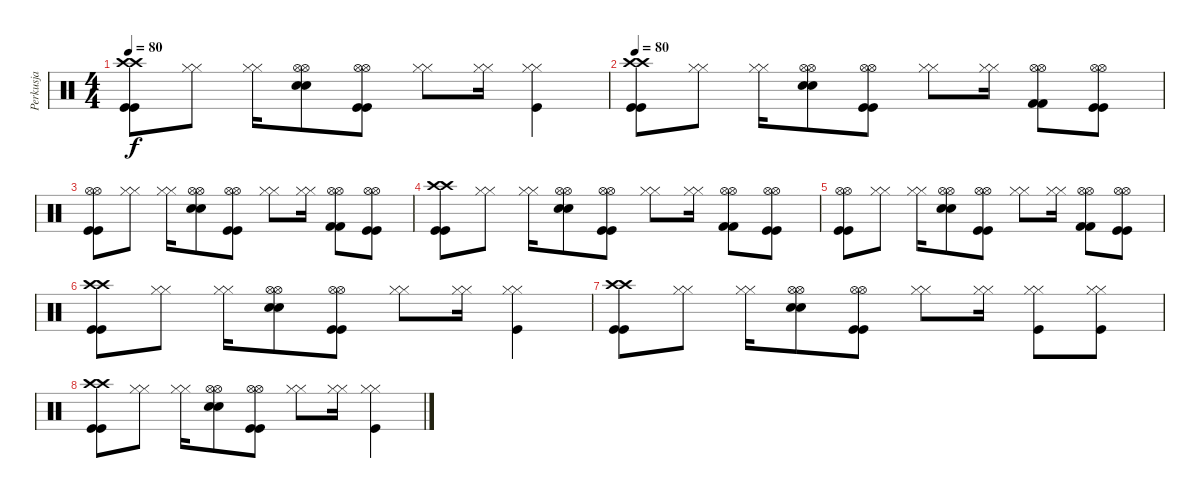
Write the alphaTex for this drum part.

\track ("Perkusja" "Perkusja") {instrument percussion}
\staff {score}
\articulation defaults
\ts (4 4)
\tempo 80
\clef neutral
\ks c
("Crash high (hit)" "Crash high (hit)" "Kick (hit)" "Kick (hit)").8{dy f} ("Hi-Hat (closed)" "Hi-Hat (closed)").8 ("Hi-Hat (closed)" "Hi-Hat (closed)").16 ("Hi-Hat (open)" "Hi-Hat (open)" "Snare (hit) 2" "Snare (hit) 2").8 ("Hi-Hat (open)" "Hi-Hat (open)" "Kick (hit)" "Kick (hit)").8 ("Hi-Hat (closed)" "Hi-Hat (closed)").8 ("Hi-Hat (closed)" "Hi-Hat (closed)").16 ("Hi-Hat (closed)" "Hi-Hat (closed)" "Kick (hit)").4 |
\tempo 80
("Crash high (hit)" "Crash high (hit)" "Kick (hit)" "Kick (hit)").8 ("Hi-Hat (closed)" "Hi-Hat (closed)").8 ("Hi-Hat (closed)" "Hi-Hat (closed)").16 ("Hi-Hat (open)" "Hi-Hat (open)" "Snare (hit) 2" "Snare (hit) 2").8 ("Hi-Hat (open)" "Hi-Hat (open)" "Kick (hit)" "Kick (hit)").8 ("Hi-Hat (closed)" "Hi-Hat (closed)").8 ("Hi-Hat (closed)" "Hi-Hat (closed)").16 ("Hi-Hat (open)" "Hi-Hat (open)" "Kick (hit) 2" "Kick (hit) 2").8 ("Hi-Hat (open)" "Hi-Hat (open)" "Kick (hit)" "Kick (hit)").8 |
("Hi-Hat (open)" "Hi-Hat (open)" "Kick (hit)" "Kick (hit)").8 ("Hi-Hat (closed)" "Hi-Hat (closed)").8 ("Hi-Hat (closed)" "Hi-Hat (closed)").16 ("Hi-Hat (open)" "Hi-Hat (open)" "Snare (hit) 2" "Snare (hit) 2").8 ("Hi-Hat (open)" "Hi-Hat (open)" "Kick (hit)" "Kick (hit)").8 ("Hi-Hat (closed)" "Hi-Hat (closed)").8 ("Hi-Hat (closed)" "Hi-Hat (closed)").16 ("Hi-Hat (open)" "Hi-Hat (open)" "Kick (hit) 2" "Kick (hit) 2").8 ("Hi-Hat (open)" "Hi-Hat (open)" "Kick (hit)" "Kick (hit)").8 |
("Crash high (hit)" "Crash high (hit)" "Kick (hit)" "Kick (hit)").8 ("Hi-Hat (closed)" "Hi-Hat (closed)").8 ("Hi-Hat (closed)" "Hi-Hat (closed)").16 ("Hi-Hat (open)" "Hi-Hat (open)" "Snare (hit) 2" "Snare (hit) 2").8 ("Hi-Hat (open)" "Hi-Hat (open)" "Kick (hit)" "Kick (hit)").8 ("Hi-Hat (closed)" "Hi-Hat (closed)").8 ("Hi-Hat (closed)" "Hi-Hat (closed)").16 ("Hi-Hat (open)" "Hi-Hat (open)" "Kick (hit) 2" "Kick (hit) 2").8 ("Hi-Hat (open)" "Hi-Hat (open)" "Kick (hit)" "Kick (hit)").8 |
("Hi-Hat (open)" "Hi-Hat (open)" "Kick (hit)" "Kick (hit)").8 ("Hi-Hat (closed)" "Hi-Hat (closed)").8 ("Hi-Hat (closed)" "Hi-Hat (closed)").16 ("Hi-Hat (open)" "Hi-Hat (open)" "Snare (hit) 2" "Snare (hit) 2").8 ("Hi-Hat (open)" "Hi-Hat (open)" "Kick (hit)" "Kick (hit)").8 ("Hi-Hat (closed)" "Hi-Hat (closed)").8 ("Hi-Hat (closed)" "Hi-Hat (closed)").16 ("Hi-Hat (open)" "Hi-Hat (open)" "Kick (hit) 2" "Kick (hit) 2").8 ("Hi-Hat (open)" "Hi-Hat (open)" "Kick (hit)" "Kick (hit)").8 |
("Crash high (hit)" "Crash high (hit)" "Kick (hit)" "Kick (hit)").8 ("Hi-Hat (closed)" "Hi-Hat (closed)").8 ("Hi-Hat (closed)" "Hi-Hat (closed)").16 ("Hi-Hat (open)" "Hi-Hat (open)" "Snare (hit) 2" "Snare (hit) 2").8 ("Hi-Hat (open)" "Hi-Hat (open)" "Kick (hit)" "Kick (hit)").8 ("Hi-Hat (closed)" "Hi-Hat (closed)").8 ("Hi-Hat (closed)" "Hi-Hat (closed)").16 ("Hi-Hat (closed)" "Hi-Hat (closed)" "Kick (hit)").4 |
("Crash high (hit)" "Crash high (hit)" "Kick (hit)" "Kick (hit)").8 ("Hi-Hat (closed)" "Hi-Hat (closed)").8 ("Hi-Hat (closed)" "Hi-Hat (closed)").16 ("Hi-Hat (open)" "Hi-Hat (open)" "Snare (hit) 2" "Snare (hit) 2").8 ("Hi-Hat (open)" "Hi-Hat (open)" "Kick (hit)" "Kick (hit)").8 ("Hi-Hat (closed)" "Hi-Hat (closed)").8 ("Hi-Hat (closed)" "Hi-Hat (closed)").16 ("Hi-Hat (closed)" "Hi-Hat (closed)" "Kick (hit)").8 ("Hi-Hat (closed)" "Hi-Hat (closed)" "Kick (hit)").8 |
("Crash high (hit)" "Crash high (hit)" "Kick (hit)" "Kick (hit)").8 ("Hi-Hat (closed)" "Hi-Hat (closed)").8 ("Hi-Hat (closed)" "Hi-Hat (closed)").16 ("Hi-Hat (open)" "Hi-Hat (open)" "Snare (hit) 2" "Snare (hit) 2").8 ("Hi-Hat (open)" "Hi-Hat (open)" "Kick (hit)" "Kick (hit)").8 ("Hi-Hat (closed)" "Hi-Hat (closed)").8 ("Hi-Hat (closed)" "Hi-Hat (closed)").16 ("Hi-Hat (closed)" "Hi-Hat (closed)" "Kick (hit)").4
